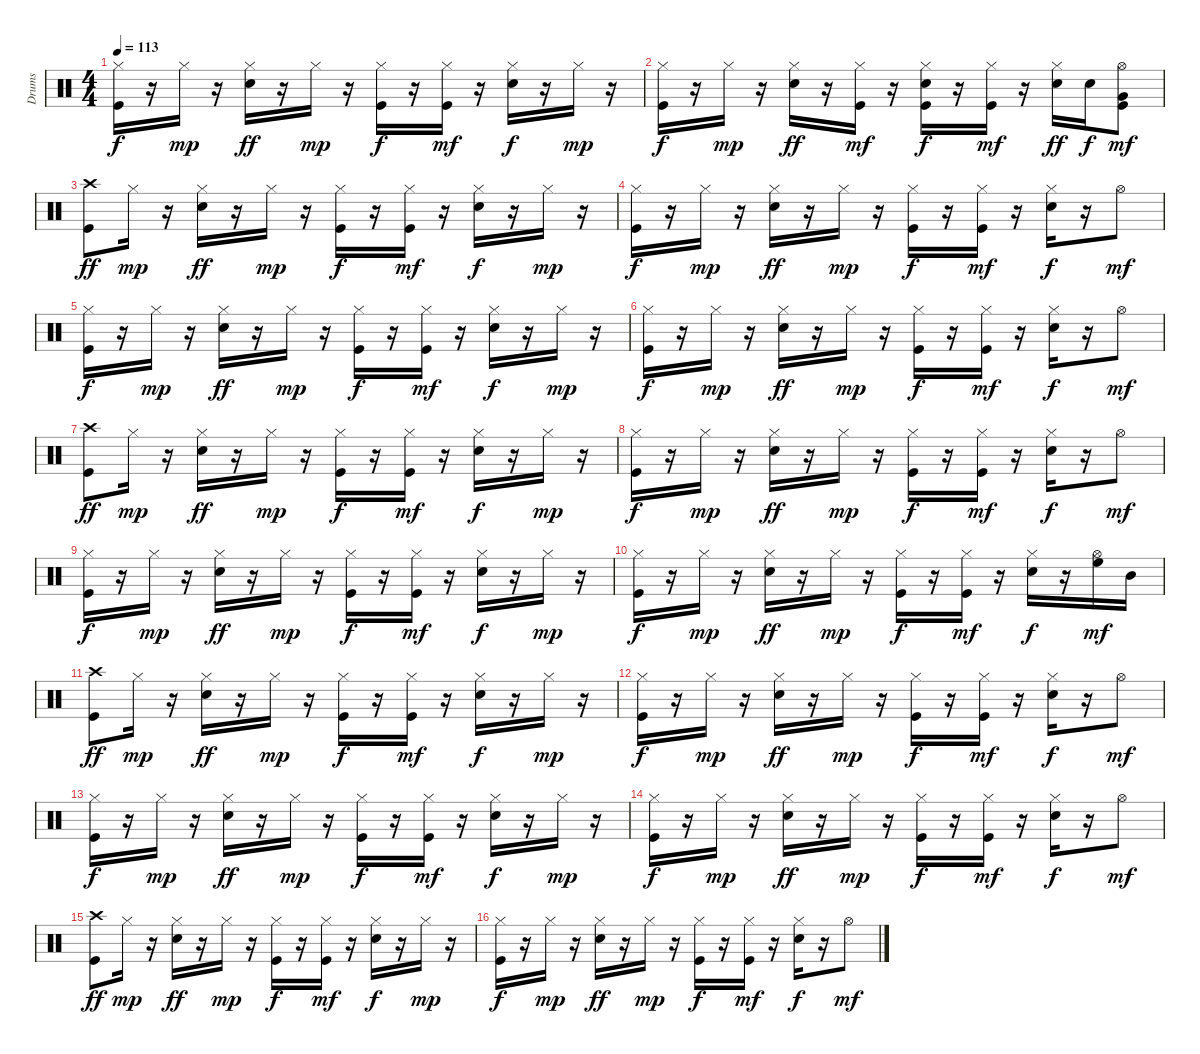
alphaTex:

\track ("Drums" "Drums") {instrument percussion}
\staff {score}
\articulation defaults
\ts (4 4)
\tempo 113
\clef neutral
\ks c
("Hi-Hat (closed)" "Kick (hit)").16{dy f} r.16 "Hi-Hat (closed)".16{dy mp} r.16 ("Electric Snare (hit)" "Hi-Hat (closed)").16{dy ff} r.16 "Hi-Hat (closed)".16{dy mp} r.16 ("Hi-Hat (closed)" "Kick (hit)").16{dy f} r.16 ("Hi-Hat (closed)" "Kick (hit)").16{dy mf} r.16 ("Electric Snare (hit)" "Hi-Hat (closed)").16{dy f} r.16 "Hi-Hat (closed)".16{dy mp} r.16 |
("Hi-Hat (closed)" "Kick (hit)").16{dy f} r.16 "Hi-Hat (closed)".16{dy mp} r.16 ("Electric Snare (hit)" "Hi-Hat (closed)").16{dy ff} r.16 ("Hi-Hat (closed)" "Kick (hit)").16{dy mf} r.16 ("Electric Snare (hit)" "Hi-Hat (closed)" "Kick (hit)").16{dy f} r.16 ("Hi-Hat (closed)" "Kick (hit)").16{dy mf} r.16 ("Electric Snare (hit)" "Hi-Hat (closed)").16{dy ff} "Electric Snare (hit)".16{dy f} ("Very Low Tom (hit)" "Hi-Hat (open)" "Kick (hit)").8{dy mf} |
("Crash high (hit)" "Kick (hit)").8{dy ff} "Hi-Hat (closed)".16{dy mp} r.16 ("Electric Snare (hit)" "Hi-Hat (closed)").16{dy ff} r.16 "Hi-Hat (closed)".16{dy mp} r.16 ("Hi-Hat (closed)" "Kick (hit)").16{dy f} r.16 ("Hi-Hat (closed)" "Kick (hit)").16{dy mf} r.16 ("Electric Snare (hit)" "Hi-Hat (closed)").16{dy f} r.16 "Hi-Hat (closed)".16{dy mp} r.16 |
("Hi-Hat (closed)" "Kick (hit)").16{dy f} r.16 "Hi-Hat (closed)".16{dy mp} r.16 ("Electric Snare (hit)" "Hi-Hat (closed)").16{dy ff} r.16 "Hi-Hat (closed)".16{dy mp} r.16 ("Hi-Hat (closed)" "Kick (hit)").16{dy f} r.16 ("Hi-Hat (closed)" "Kick (hit)").16{dy mf} r.16 ("Electric Snare (hit)" "Hi-Hat (closed)").16{dy f} r.16 "Hi-Hat (open)".8{dy mf} |
("Hi-Hat (closed)" "Kick (hit)").16{dy f} r.16 "Hi-Hat (closed)".16{dy mp} r.16 ("Electric Snare (hit)" "Hi-Hat (closed)").16{dy ff} r.16 "Hi-Hat (closed)".16{dy mp} r.16 ("Hi-Hat (closed)" "Kick (hit)").16{dy f} r.16 ("Hi-Hat (closed)" "Kick (hit)").16{dy mf} r.16 ("Electric Snare (hit)" "Hi-Hat (closed)").16{dy f} r.16 "Hi-Hat (closed)".16{dy mp} r.16 |
("Hi-Hat (closed)" "Kick (hit)").16{dy f} r.16 "Hi-Hat (closed)".16{dy mp} r.16 ("Electric Snare (hit)" "Hi-Hat (closed)").16{dy ff} r.16 "Hi-Hat (closed)".16{dy mp} r.16 ("Hi-Hat (closed)" "Kick (hit)").16{dy f} r.16 ("Hi-Hat (closed)" "Kick (hit)").16{dy mf} r.16 ("Electric Snare (hit)" "Hi-Hat (closed)").16{dy f} r.16 "Hi-Hat (open)".8{dy mf} |
("Crash high (hit)" "Kick (hit)").8{dy ff} "Hi-Hat (closed)".16{dy mp} r.16 ("Electric Snare (hit)" "Hi-Hat (closed)").16{dy ff} r.16 "Hi-Hat (closed)".16{dy mp} r.16 ("Hi-Hat (closed)" "Kick (hit)").16{dy f} r.16 ("Hi-Hat (closed)" "Kick (hit)").16{dy mf} r.16 ("Electric Snare (hit)" "Hi-Hat (closed)").16{dy f} r.16 "Hi-Hat (closed)".16{dy mp} r.16 |
("Hi-Hat (closed)" "Kick (hit)").16{dy f} r.16 "Hi-Hat (closed)".16{dy mp} r.16 ("Electric Snare (hit)" "Hi-Hat (closed)").16{dy ff} r.16 "Hi-Hat (closed)".16{dy mp} r.16 ("Hi-Hat (closed)" "Kick (hit)").16{dy f} r.16 ("Hi-Hat (closed)" "Kick (hit)").16{dy mf} r.16 ("Electric Snare (hit)" "Hi-Hat (closed)").16{dy f} r.16 "Hi-Hat (open)".8{dy mf} |
("Hi-Hat (closed)" "Kick (hit)").16{dy f} r.16 "Hi-Hat (closed)".16{dy mp} r.16 ("Electric Snare (hit)" "Hi-Hat (closed)").16{dy ff} r.16 "Hi-Hat (closed)".16{dy mp} r.16 ("Hi-Hat (closed)" "Kick (hit)").16{dy f} r.16 ("Hi-Hat (closed)" "Kick (hit)").16{dy mf} r.16 ("Electric Snare (hit)" "Hi-Hat (closed)").16{dy f} r.16 "Hi-Hat (closed)".16{dy mp} r.16 |
("Hi-Hat (closed)" "Kick (hit)").16{dy f} r.16 "Hi-Hat (closed)".16{dy mp} r.16 ("Electric Snare (hit)" "Hi-Hat (closed)").16{dy ff} r.16 "Hi-Hat (closed)".16{dy mp} r.16 ("Hi-Hat (closed)" "Kick (hit)").16{dy f} r.16 ("Hi-Hat (closed)" "Kick (hit)").16{dy mf} r.16 ("Electric Snare (hit)" "Hi-Hat (closed)").16{dy f} r.16 ("Hi-Hat (open)" "High Floor Tom (hit)").16{dy mf} "Mid Tom (hit)".16 |
("Crash high (hit)" "Kick (hit)").8{dy ff} "Hi-Hat (closed)".16{dy mp} r.16 ("Electric Snare (hit)" "Hi-Hat (closed)").16{dy ff} r.16 "Hi-Hat (closed)".16{dy mp} r.16 ("Hi-Hat (closed)" "Kick (hit)").16{dy f} r.16 ("Hi-Hat (closed)" "Kick (hit)").16{dy mf} r.16 ("Electric Snare (hit)" "Hi-Hat (closed)").16{dy f} r.16 "Hi-Hat (closed)".16{dy mp} r.16 |
("Hi-Hat (closed)" "Kick (hit)").16{dy f} r.16 "Hi-Hat (closed)".16{dy mp} r.16 ("Electric Snare (hit)" "Hi-Hat (closed)").16{dy ff} r.16 "Hi-Hat (closed)".16{dy mp} r.16 ("Hi-Hat (closed)" "Kick (hit)").16{dy f} r.16 ("Hi-Hat (closed)" "Kick (hit)").16{dy mf} r.16 ("Electric Snare (hit)" "Hi-Hat (closed)").16{dy f} r.16 "Hi-Hat (open)".8{dy mf} |
("Hi-Hat (closed)" "Kick (hit)").16{dy f} r.16 "Hi-Hat (closed)".16{dy mp} r.16 ("Electric Snare (hit)" "Hi-Hat (closed)").16{dy ff} r.16 "Hi-Hat (closed)".16{dy mp} r.16 ("Hi-Hat (closed)" "Kick (hit)").16{dy f} r.16 ("Hi-Hat (closed)" "Kick (hit)").16{dy mf} r.16 ("Electric Snare (hit)" "Hi-Hat (closed)").16{dy f} r.16 "Hi-Hat (closed)".16{dy mp} r.16 |
("Hi-Hat (closed)" "Kick (hit)").16{dy f} r.16 "Hi-Hat (closed)".16{dy mp} r.16 ("Electric Snare (hit)" "Hi-Hat (closed)").16{dy ff} r.16 "Hi-Hat (closed)".16{dy mp} r.16 ("Hi-Hat (closed)" "Kick (hit)").16{dy f} r.16 ("Hi-Hat (closed)" "Kick (hit)").16{dy mf} r.16 ("Electric Snare (hit)" "Hi-Hat (closed)").16{dy f} r.16 "Hi-Hat (open)".8{dy mf} |
("Crash high (hit)" "Kick (hit)").8{dy ff} "Hi-Hat (closed)".16{dy mp} r.16 ("Electric Snare (hit)" "Hi-Hat (closed)").16{dy ff} r.16 "Hi-Hat (closed)".16{dy mp} r.16 ("Hi-Hat (closed)" "Kick (hit)").16{dy f} r.16 ("Hi-Hat (closed)" "Kick (hit)").16{dy mf} r.16 ("Electric Snare (hit)" "Hi-Hat (closed)").16{dy f} r.16 "Hi-Hat (closed)".16{dy mp} r.16 |
("Hi-Hat (closed)" "Kick (hit)").16{dy f} r.16 "Hi-Hat (closed)".16{dy mp} r.16 ("Electric Snare (hit)" "Hi-Hat (closed)").16{dy ff} r.16 "Hi-Hat (closed)".16{dy mp} r.16 ("Hi-Hat (closed)" "Kick (hit)").16{dy f} r.16 ("Hi-Hat (closed)" "Kick (hit)").16{dy mf} r.16 ("Electric Snare (hit)" "Hi-Hat (closed)").16{dy f} r.16 "Hi-Hat (open)".8{dy mf}
